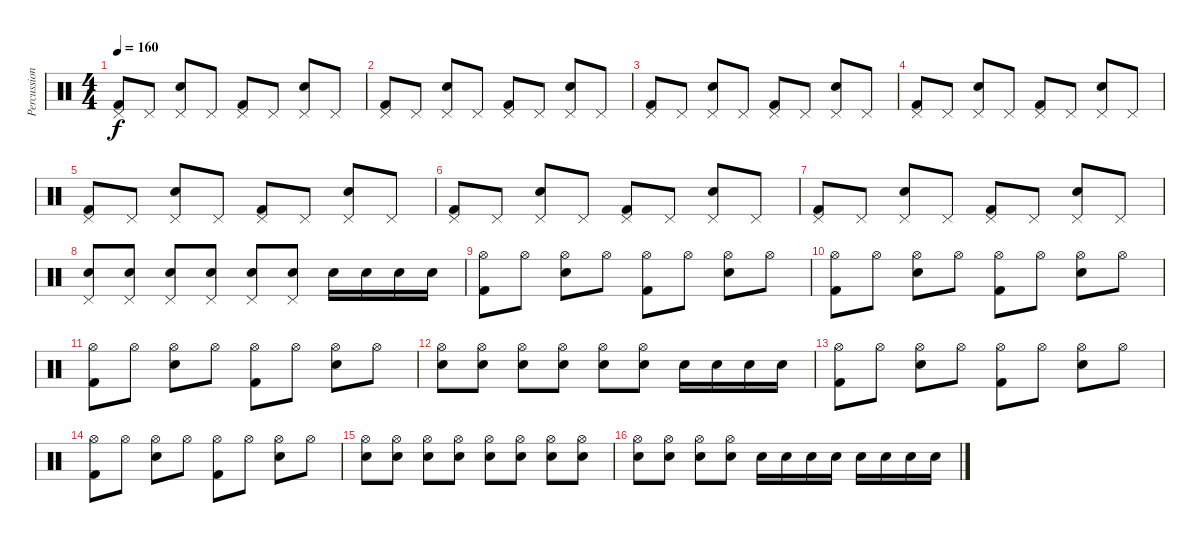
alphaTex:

\track ("Percussion" "Percussion") {instrument percussion}
\staff {score}
\articulation defaults
\ts (4 4)
\tempo 160
\clef neutral
\ks c
("Pedal Hi-Hat (hit)" "Kick (hit) 2").8{dy f} "Pedal Hi-Hat (hit)".8 ("Pedal Hi-Hat (hit)" "Electric Snare (hit)").8 "Pedal Hi-Hat (hit)".8 ("Pedal Hi-Hat (hit)" "Kick (hit) 2").8 "Pedal Hi-Hat (hit)".8 ("Pedal Hi-Hat (hit)" "Electric Snare (hit)").8 "Pedal Hi-Hat (hit)".8 |
("Pedal Hi-Hat (hit)" "Kick (hit) 2").8 "Pedal Hi-Hat (hit)".8 ("Pedal Hi-Hat (hit)" "Electric Snare (hit)").8 "Pedal Hi-Hat (hit)".8 ("Pedal Hi-Hat (hit)" "Kick (hit) 2").8 "Pedal Hi-Hat (hit)".8 ("Pedal Hi-Hat (hit)" "Electric Snare (hit)").8 "Pedal Hi-Hat (hit)".8 |
("Pedal Hi-Hat (hit)" "Kick (hit) 2").8 "Pedal Hi-Hat (hit)".8 ("Pedal Hi-Hat (hit)" "Electric Snare (hit)").8 "Pedal Hi-Hat (hit)".8 ("Pedal Hi-Hat (hit)" "Kick (hit) 2").8 "Pedal Hi-Hat (hit)".8 ("Pedal Hi-Hat (hit)" "Electric Snare (hit)").8 "Pedal Hi-Hat (hit)".8 |
("Pedal Hi-Hat (hit)" "Kick (hit) 2").8 "Pedal Hi-Hat (hit)".8 ("Pedal Hi-Hat (hit)" "Electric Snare (hit)").8 "Pedal Hi-Hat (hit)".8 ("Pedal Hi-Hat (hit)" "Kick (hit) 2").8 "Pedal Hi-Hat (hit)".8 ("Pedal Hi-Hat (hit)" "Electric Snare (hit)").8 "Pedal Hi-Hat (hit)".8 |
("Pedal Hi-Hat (hit)" "Kick (hit) 2").8 "Pedal Hi-Hat (hit)".8 ("Pedal Hi-Hat (hit)" "Electric Snare (hit)").8 "Pedal Hi-Hat (hit)".8 ("Pedal Hi-Hat (hit)" "Kick (hit) 2").8 "Pedal Hi-Hat (hit)".8 ("Pedal Hi-Hat (hit)" "Electric Snare (hit)").8 "Pedal Hi-Hat (hit)".8 |
("Pedal Hi-Hat (hit)" "Kick (hit) 2").8 "Pedal Hi-Hat (hit)".8 ("Pedal Hi-Hat (hit)" "Electric Snare (hit)").8 "Pedal Hi-Hat (hit)".8 ("Pedal Hi-Hat (hit)" "Kick (hit) 2").8 "Pedal Hi-Hat (hit)".8 ("Pedal Hi-Hat (hit)" "Electric Snare (hit)").8 "Pedal Hi-Hat (hit)".8 |
("Pedal Hi-Hat (hit)" "Kick (hit) 2").8 "Pedal Hi-Hat (hit)".8 ("Pedal Hi-Hat (hit)" "Electric Snare (hit)").8 "Pedal Hi-Hat (hit)".8 ("Pedal Hi-Hat (hit)" "Kick (hit) 2").8 "Pedal Hi-Hat (hit)".8 ("Pedal Hi-Hat (hit)" "Electric Snare (hit)").8 "Pedal Hi-Hat (hit)".8 |
("Pedal Hi-Hat (hit)" "Electric Snare (hit)").8 ("Pedal Hi-Hat (hit)" "Electric Snare (hit)").8 ("Pedal Hi-Hat (hit)" "Electric Snare (hit)").8 ("Pedal Hi-Hat (hit)" "Electric Snare (hit)").8 ("Pedal Hi-Hat (hit)" "Electric Snare (hit)").8 ("Pedal Hi-Hat (hit)" "Electric Snare (hit)").8 "Electric Snare (hit)".16 "Electric Snare (hit)".16 "Electric Snare (hit)".16 "Electric Snare (hit)".16 |
("Hi-Hat (open)" "Kick (hit) 2").8 "Hi-Hat (open)".8 ("Hi-Hat (open)" "Electric Snare (hit)").8 "Hi-Hat (open)".8 ("Hi-Hat (open)" "Kick (hit) 2").8 "Hi-Hat (open)".8 ("Hi-Hat (open)" "Electric Snare (hit)").8 "Hi-Hat (open)".8 |
("Hi-Hat (open)" "Kick (hit) 2").8 "Hi-Hat (open)".8 ("Hi-Hat (open)" "Electric Snare (hit)").8 "Hi-Hat (open)".8 ("Hi-Hat (open)" "Kick (hit) 2").8 "Hi-Hat (open)".8 ("Hi-Hat (open)" "Electric Snare (hit)").8 "Hi-Hat (open)".8 |
("Hi-Hat (open)" "Kick (hit) 2").8 "Hi-Hat (open)".8 ("Hi-Hat (open)" "Electric Snare (hit)").8 "Hi-Hat (open)".8 ("Hi-Hat (open)" "Kick (hit) 2").8 "Hi-Hat (open)".8 ("Hi-Hat (open)" "Electric Snare (hit)").8 "Hi-Hat (open)".8 |
("Hi-Hat (open)" "Electric Snare (hit)").8 ("Hi-Hat (open)" "Electric Snare (hit)").8 ("Hi-Hat (open)" "Electric Snare (hit)").8 ("Hi-Hat (open)" "Electric Snare (hit)").8 ("Hi-Hat (open)" "Electric Snare (hit)").8 ("Hi-Hat (open)" "Electric Snare (hit)").8 "Electric Snare (hit)".16 "Electric Snare (hit)".16 "Electric Snare (hit)".16 "Electric Snare (hit)".16 |
("Hi-Hat (open)" "Kick (hit) 2").8 "Hi-Hat (open)".8 ("Hi-Hat (open)" "Electric Snare (hit)").8 "Hi-Hat (open)".8 ("Hi-Hat (open)" "Kick (hit) 2").8 "Hi-Hat (open)".8 ("Hi-Hat (open)" "Electric Snare (hit)").8 "Hi-Hat (open)".8 |
("Hi-Hat (open)" "Kick (hit) 2").8 "Hi-Hat (open)".8 ("Hi-Hat (open)" "Electric Snare (hit)").8 "Hi-Hat (open)".8 ("Hi-Hat (open)" "Kick (hit) 2").8 "Hi-Hat (open)".8 ("Hi-Hat (open)" "Electric Snare (hit)").8 "Hi-Hat (open)".8 |
("Hi-Hat (open)" "Electric Snare (hit)").8 ("Hi-Hat (open)" "Electric Snare (hit)").8 ("Hi-Hat (open)" "Electric Snare (hit)").8 ("Hi-Hat (open)" "Electric Snare (hit)").8 ("Hi-Hat (open)" "Electric Snare (hit)").8 ("Hi-Hat (open)" "Electric Snare (hit)").8 ("Hi-Hat (open)" "Electric Snare (hit)").8 ("Hi-Hat (open)" "Electric Snare (hit)").8 |
("Hi-Hat (open)" "Electric Snare (hit)").8 ("Hi-Hat (open)" "Electric Snare (hit)").8 ("Hi-Hat (open)" "Electric Snare (hit)").8 ("Hi-Hat (open)" "Electric Snare (hit)").8 "Electric Snare (hit)".16 "Electric Snare (hit)".16 "Electric Snare (hit)".16 "Electric Snare (hit)".16 "Electric Snare (hit)".16 "Electric Snare (hit)".16 "Electric Snare (hit)".16 "Electric Snare (hit)".16
